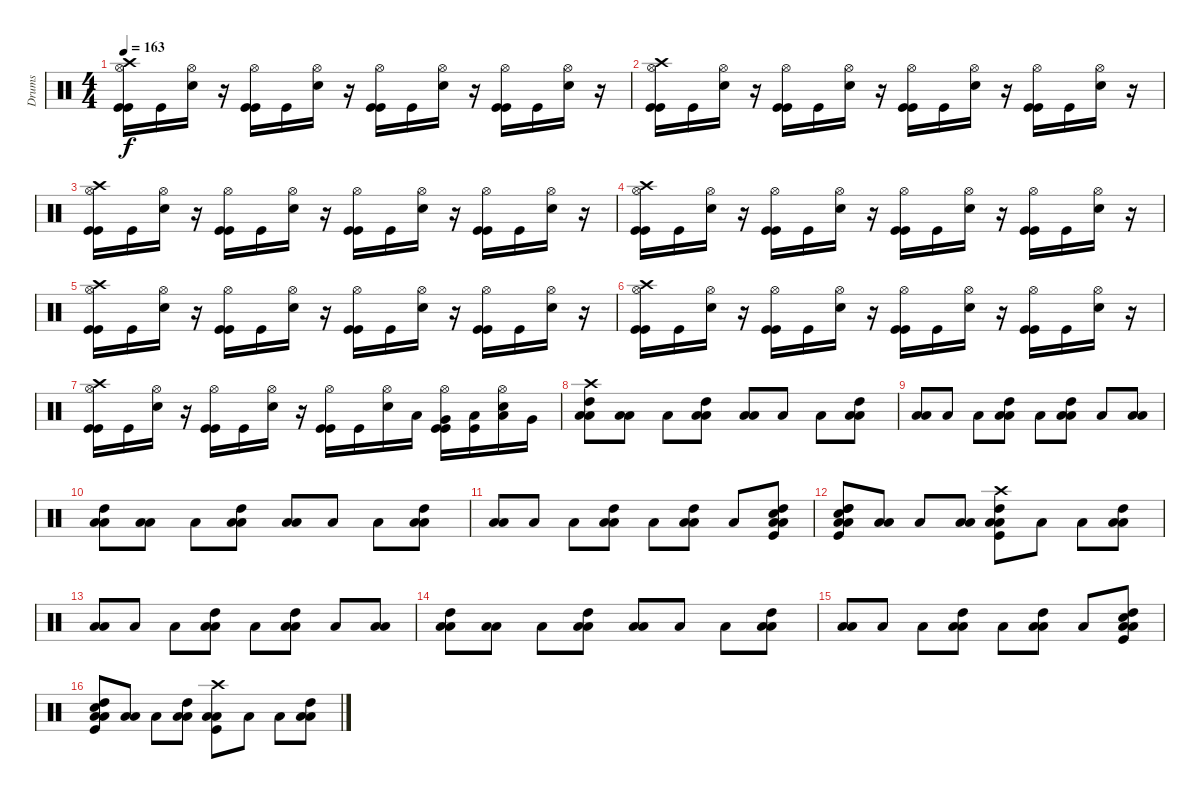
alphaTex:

\track ("Drums" "Drums") {instrument percussion}
\staff {score}
\articulation defaults
\ts (4 4)
\tempo 163
\clef neutral
\ks c
("Crash high (hit)" "Hi-Hat (open)" "Kick (hit)" "Kick (hit)").16{dy f} "Kick (hit)".16 ("Hi-Hat (open)" "Electric Snare (hit)").16 r.16 ("Hi-Hat (open)" "Kick (hit)" "Kick (hit)").16 "Kick (hit)".16 ("Hi-Hat (open)" "Electric Snare (hit)").16 r.16 ("Hi-Hat (open)" "Kick (hit)" "Kick (hit)").16 "Kick (hit)".16 ("Hi-Hat (open)" "Electric Snare (hit)").16 r.16 ("Hi-Hat (open)" "Kick (hit)" "Kick (hit)").16 "Kick (hit)".16 ("Hi-Hat (open)" "Electric Snare (hit)").16 r.16 |
("Crash high (hit)" "Hi-Hat (open)" "Kick (hit)" "Kick (hit)").16 "Kick (hit)".16 ("Hi-Hat (open)" "Electric Snare (hit)").16 r.16 ("Hi-Hat (open)" "Kick (hit)" "Kick (hit)").16 "Kick (hit)".16 ("Hi-Hat (open)" "Electric Snare (hit)").16 r.16 ("Hi-Hat (open)" "Kick (hit)" "Kick (hit)").16 "Kick (hit)".16 ("Hi-Hat (open)" "Electric Snare (hit)").16 r.16 ("Hi-Hat (open)" "Kick (hit)" "Kick (hit)").16 "Kick (hit)".16 ("Hi-Hat (open)" "Electric Snare (hit)").16 r.16 |
("Crash high (hit)" "Hi-Hat (open)" "Kick (hit)" "Kick (hit)").16 "Kick (hit)".16 ("Hi-Hat (open)" "Electric Snare (hit)").16 r.16 ("Hi-Hat (open)" "Kick (hit)" "Kick (hit)").16 "Kick (hit)".16 ("Hi-Hat (open)" "Electric Snare (hit)").16 r.16 ("Hi-Hat (open)" "Kick (hit)" "Kick (hit)").16 "Kick (hit)".16 ("Hi-Hat (open)" "Electric Snare (hit)").16 r.16 ("Hi-Hat (open)" "Kick (hit)" "Kick (hit)").16 "Kick (hit)".16 ("Hi-Hat (open)" "Electric Snare (hit)").16 r.16 |
("Crash high (hit)" "Hi-Hat (open)" "Kick (hit)" "Kick (hit)").16 "Kick (hit)".16 ("Hi-Hat (open)" "Electric Snare (hit)").16 r.16 ("Hi-Hat (open)" "Kick (hit)" "Kick (hit)").16 "Kick (hit)".16 ("Hi-Hat (open)" "Electric Snare (hit)").16 r.16 ("Hi-Hat (open)" "Kick (hit)" "Kick (hit)").16 "Kick (hit)".16 ("Hi-Hat (open)" "Electric Snare (hit)").16 r.16 ("Hi-Hat (open)" "Kick (hit)" "Kick (hit)").16 "Kick (hit)".16 ("Hi-Hat (open)" "Electric Snare (hit)").16 r.16 |
("Crash high (hit)" "Hi-Hat (open)" "Kick (hit)" "Kick (hit)").16 "Kick (hit)".16 ("Hi-Hat (open)" "Electric Snare (hit)").16 r.16 ("Hi-Hat (open)" "Kick (hit)" "Kick (hit)").16 "Kick (hit)".16 ("Hi-Hat (open)" "Electric Snare (hit)").16 r.16 ("Hi-Hat (open)" "Kick (hit)" "Kick (hit)").16 "Kick (hit)".16 ("Hi-Hat (open)" "Electric Snare (hit)").16 r.16 ("Hi-Hat (open)" "Kick (hit)" "Kick (hit)").16 "Kick (hit)".16 ("Hi-Hat (open)" "Electric Snare (hit)").16 r.16 |
("Crash high (hit)" "Hi-Hat (open)" "Kick (hit)" "Kick (hit)").16 "Kick (hit)".16 ("Hi-Hat (open)" "Electric Snare (hit)").16 r.16 ("Hi-Hat (open)" "Kick (hit)" "Kick (hit)").16 "Kick (hit)".16 ("Hi-Hat (open)" "Electric Snare (hit)").16 r.16 ("Hi-Hat (open)" "Kick (hit)" "Kick (hit)").16 "Kick (hit)".16 ("Hi-Hat (open)" "Electric Snare (hit)").16 r.16 ("Hi-Hat (open)" "Kick (hit)" "Kick (hit)").16 "Kick (hit)".16 ("Hi-Hat (open)" "Electric Snare (hit)").16 r.16 |
("Crash high (hit)" "Hi-Hat (open)" "Kick (hit)" "Kick (hit)").16 "Kick (hit)".16 ("Hi-Hat (open)" "Electric Snare (hit)").16 r.16 ("Hi-Hat (open)" "Kick (hit)" "Kick (hit)").16 "Kick (hit)".16 ("Hi-Hat (open)" "Electric Snare (hit)").16 r.16 ("Hi-Hat (open)" "Kick (hit)" "Kick (hit)").16 "Kick (hit)".16 ("Hi-Hat (open)" "Electric Snare (hit)").16 "Low Floor Tom (hit)".16 ("Very Low Tom (hit)" "Hi-Hat (open)" "Kick (hit)" "Kick (hit)").16 ("Kick (hit)" "Low Floor Tom (hit)").16 ("Low Tom (hit)" "Hi-Hat (open)" "Electric Snare (hit)").16 "Very Low Tom (hit)".16 |
("Crash high (hit)" "High Tom (hit)" "Low Tom (hit)" "Low Floor Tom (hit)").8 ("Low Tom (hit)" "Low Floor Tom (hit)").8 "Low Floor Tom (hit)".8 ("High Tom (hit)" "Low Tom (hit)" "Low Floor Tom (hit)").8 ("Low Tom (hit)" "Low Floor Tom (hit)").8 "Low Floor Tom (hit)".8 "Low Floor Tom (hit)".8 ("High Tom (hit)" "Low Tom (hit)" "Low Floor Tom (hit)").8 |
("Low Floor Tom (hit)" "Low Tom (hit)").8 "Low Floor Tom (hit)".8 "Low Floor Tom (hit)".8 ("High Tom (hit)" "Low Tom (hit)" "Low Floor Tom (hit)").8 "Low Floor Tom (hit)".8 ("High Tom (hit)" "Low Tom (hit)" "Low Floor Tom (hit)").8 "Low Floor Tom (hit)".8 ("Low Tom (hit)" "Low Floor Tom (hit)").8 |
("High Tom (hit)" "Low Tom (hit)" "Low Floor Tom (hit)").8 ("Low Tom (hit)" "Low Floor Tom (hit)").8 "Low Floor Tom (hit)".8 ("High Tom (hit)" "Low Tom (hit)" "Low Floor Tom (hit)").8 ("Low Tom (hit)" "Low Floor Tom (hit)").8 "Low Floor Tom (hit)".8 "Low Floor Tom (hit)".8 ("High Tom (hit)" "Low Tom (hit)" "Low Floor Tom (hit)").8 |
("Low Floor Tom (hit)" "Low Tom (hit)").8 "Low Floor Tom (hit)".8 "Low Floor Tom (hit)".8 ("High Tom (hit)" "Low Tom (hit)" "Low Floor Tom (hit)").8 "Low Floor Tom (hit)".8 ("High Tom (hit)" "Low Tom (hit)" "Low Floor Tom (hit)").8 "Low Floor Tom (hit)".8 ("Kick (hit)" "High Tom (hit)" "Snare (hit) 2" "Low Tom (hit)" "Low Floor Tom (hit)").8 |
("Kick (hit)" "High Tom (hit)" "Snare (hit) 2" "High Tom (hit)" "Low Tom (hit)" "Low Floor Tom (hit)").8 ("Low Tom (hit)" "Low Floor Tom (hit)").8 "Low Floor Tom (hit)".8 ("Low Tom (hit)" "Low Floor Tom (hit)").8 ("Crash high (hit)" "High Tom (hit)" "Kick (hit)" "Low Tom (hit)" "Low Floor Tom (hit)").8 "Low Floor Tom (hit)".8 "Low Floor Tom (hit)".8 ("High Tom (hit)" "Low Tom (hit)" "Low Floor Tom (hit)").8 |
("Low Floor Tom (hit)" "Low Tom (hit)").8 "Low Floor Tom (hit)".8 "Low Floor Tom (hit)".8 ("High Tom (hit)" "Low Tom (hit)" "Low Floor Tom (hit)").8 "Low Floor Tom (hit)".8 ("High Tom (hit)" "Low Tom (hit)" "Low Floor Tom (hit)").8 "Low Floor Tom (hit)".8 ("Low Tom (hit)" "Low Floor Tom (hit)").8 |
("High Tom (hit)" "Low Tom (hit)" "Low Floor Tom (hit)").8 ("Low Tom (hit)" "Low Floor Tom (hit)").8 "Low Floor Tom (hit)".8 ("High Tom (hit)" "Low Tom (hit)" "Low Floor Tom (hit)").8 ("Low Tom (hit)" "Low Floor Tom (hit)").8 "Low Floor Tom (hit)".8 "Low Floor Tom (hit)".8 ("High Tom (hit)" "Low Tom (hit)" "Low Floor Tom (hit)").8 |
("Low Floor Tom (hit)" "Low Tom (hit)").8 "Low Floor Tom (hit)".8 "Low Floor Tom (hit)".8 ("High Tom (hit)" "Low Tom (hit)" "Low Floor Tom (hit)").8 "Low Floor Tom (hit)".8 ("High Tom (hit)" "Low Tom (hit)" "Low Floor Tom (hit)").8 "Low Floor Tom (hit)".8 ("High Tom (hit)" "Kick (hit)" "Snare (hit) 2" "Low Tom (hit)" "Low Floor Tom (hit)").8 |
("Kick (hit)" "Snare (hit) 2" "High Tom (hit)" "Low Tom (hit)" "Low Floor Tom (hit)").8 ("Low Tom (hit)" "Low Floor Tom (hit)").8 "Low Floor Tom (hit)".8 ("High Tom (hit)" "Low Tom (hit)" "Low Floor Tom (hit)").8 ("Kick (hit)" "Crash high (hit)" "Low Tom (hit)" "Low Floor Tom (hit)").8 "Low Floor Tom (hit)".8 "Low Floor Tom (hit)".8 ("High Tom (hit)" "Low Tom (hit)" "Low Floor Tom (hit)").8
